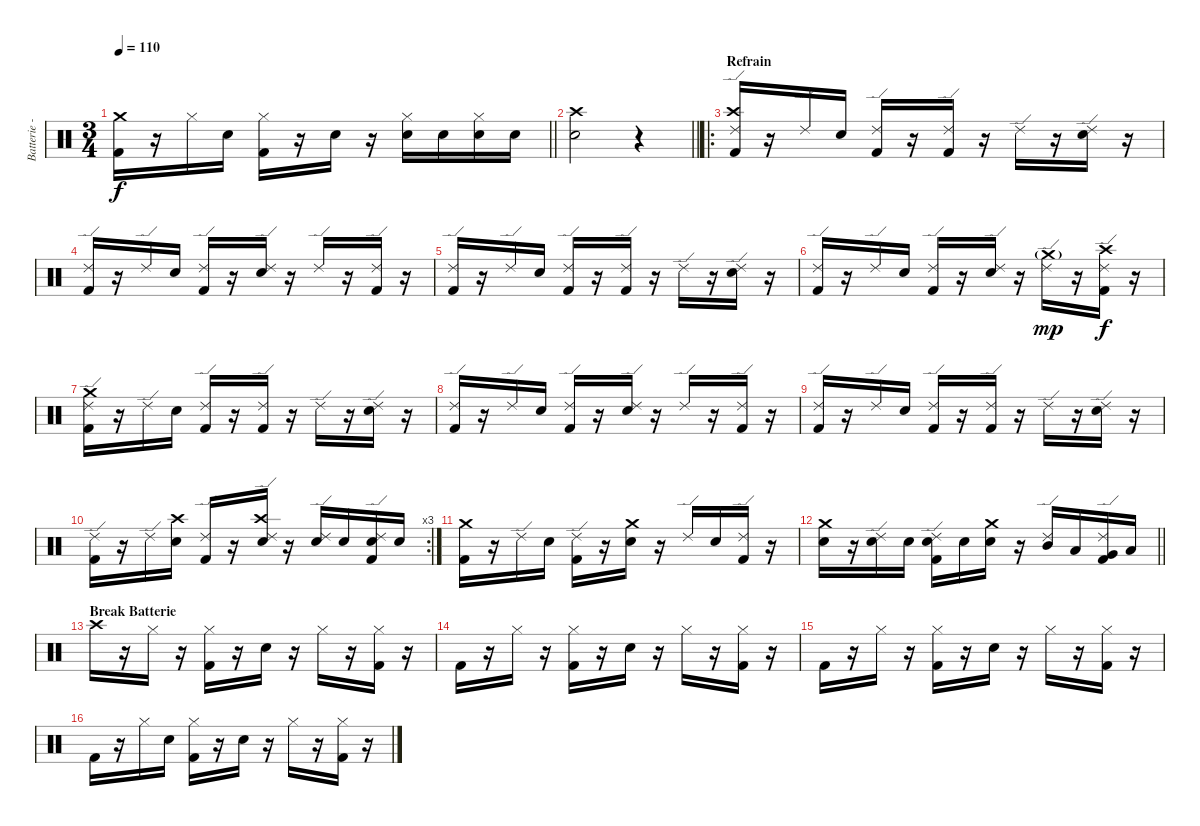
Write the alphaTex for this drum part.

\track ("Batterie - Toshiya" "Batterie -") {instrument percussion}
\staff {score}
\articulation defaults
\ts (3 4)
\tempo 110
\clef neutral
\barLineRight lightlight
\ks c
("Crash medium (hit)" "Kick (hit) 2").16{dy f} r.16 "Hi-Hat (closed)".16 "Electric Snare (hit)".16 ("Hi-Hat (closed)" "Kick (hit) 2").16 r.16 "Electric Snare (hit)".16 r.16 ("Hi-Hat (closed)" "Electric Snare (hit)").16 "Electric Snare (hit)".16 ("Hi-Hat (closed)" "Electric Snare (hit)").16 "Electric Snare (hit)".16 |
\barLineRight lightlight
("Crash high (hit)" "Electric Snare (hit)").2 r.4 |
\ro
\section ("" "Refrain")
("Ride (edge) 2" "Crash high (hit)" "Kick (hit) 2").16 r.16 "Ride (edge) 2".16 "Electric Snare (hit)".16 ("Ride (edge) 2" "Kick (hit) 2").16 r.16 ("Ride (edge) 2" "Kick (hit) 2").16 r.16 "Ride (edge) 2".16 r.16 ("Ride (edge) 2" "Electric Snare (hit)").16 r.16 |
("Ride (edge) 2" "Kick (hit) 2").16 r.16 "Ride (edge) 2".16 "Electric Snare (hit)".16 ("Ride (edge) 2" "Kick (hit) 2").16 r.16 ("Ride (edge) 2" "Electric Snare (hit)").16 r.16 "Ride (edge) 2".16 r.16 ("Ride (edge) 2" "Kick (hit) 2").16 r.16 |
("Ride (edge) 2" "Kick (hit) 2").16 r.16 "Ride (edge) 2".16 "Electric Snare (hit)".16 ("Ride (edge) 2" "Kick (hit) 2").16 r.16 ("Ride (edge) 2" "Kick (hit) 2").16 r.16 "Ride (edge) 2".16 r.16 ("Ride (edge) 2" "Electric Snare (hit)").16 r.16 |
("Ride (edge) 2" "Kick (hit) 2").16 r.16 "Ride (edge) 2".16 "Electric Snare (hit)".16 ("Ride (edge) 2" "Kick (hit) 2").16 r.16 ("Ride (edge) 2" "Electric Snare (hit)").16 r.16 ("Ride (edge) 2" "Crash medium (hit)"{g}).16{dy mp} r.16 ("Ride (edge) 2" "Crash high (hit)" "Kick (hit) 2").16{dy f} r.16 |
("Ride (edge) 2" "Crash medium (hit)" "Kick (hit) 2").16 r.16 "Ride (edge) 2".16 "Electric Snare (hit)".16 ("Ride (edge) 2" "Kick (hit) 2").16 r.16 ("Ride (edge) 2" "Kick (hit) 2").16 r.16 "Ride (edge) 2".16 r.16 ("Ride (edge) 2" "Electric Snare (hit)").16 r.16 |
("Ride (edge) 2" "Kick (hit) 2").16 r.16 "Ride (edge) 2".16 "Electric Snare (hit)".16 ("Ride (edge) 2" "Kick (hit) 2").16 r.16 ("Ride (edge) 2" "Electric Snare (hit)").16 r.16 "Ride (edge) 2".16 r.16 ("Ride (edge) 2" "Kick (hit) 2").16 r.16 |
("Ride (edge) 2" "Kick (hit) 2").16 r.16 "Ride (edge) 2".16 "Electric Snare (hit)".16 ("Ride (edge) 2" "Kick (hit) 2").16 r.16 ("Ride (edge) 2" "Kick (hit) 2").16 r.16 "Ride (edge) 2".16 r.16 ("Ride (edge) 2" "Electric Snare (hit)").16 r.16 |
\rc 3
("Ride (edge) 2" "Kick (hit) 2").16 r.16 "Ride (edge) 2".16 ("Crash high (hit)" "Electric Snare (hit)").16 ("Ride (edge) 2" "Kick (hit) 2").16 r.16 ("Ride (edge) 2" "Crash high (hit)" "Electric Snare (hit)").16 r.16 ("Ride (edge) 2" "Electric Snare (hit)").16 "Electric Snare (hit)".16 ("Ride (edge) 2" "Electric Snare (hit)" "Kick (hit) 2").16 "Electric Snare (hit)".16 |
("Crash medium (hit)" "Kick (hit) 2").16 r.16 "Ride (edge) 2".16 "Electric Snare (hit)".16 ("Ride (edge) 2" "Kick (hit) 2").16 r.16 ("Crash medium (hit)" "Electric Snare (hit)").16 r.16 "Ride (edge) 2".16 "Electric Snare (hit)".16 ("Ride (edge) 2" "Kick (hit) 2").16 r.16 |
\barLineRight lightlight
("Crash medium (hit)" "Electric Snare (hit)").16 r.16 ("Ride (edge) 2" "Electric Snare (hit)").16 "Electric Snare (hit)".16 ("Ride (edge) 2" "Electric Snare (hit)" "Kick (hit) 2").16 "Electric Snare (hit)".16 ("Crash medium (hit)" "Electric Snare (hit)").16 r.16 ("Ride (edge) 2" "Mid Tom (hit)").16 "Low Tom (hit)".16 ("Ride (edge) 2" "Very Low Tom (hit)" "Kick (hit) 2").16 "Low Floor Tom (hit)".16 |
\section ("" "Break Batterie")
"Crash high (hit)".16 r.16 "Hi-Hat (closed)".16 r.16 ("Hi-Hat (closed)" "Kick (hit) 2").16 r.16 "Electric Snare (hit)".16 r.16 "Hi-Hat (closed)".16 r.16 ("Hi-Hat (closed)" "Kick (hit) 2").16 r.16 |
"Kick (hit) 2".16 r.16 "Hi-Hat (closed)".16 r.16 ("Hi-Hat (closed)" "Kick (hit) 2").16 r.16 "Electric Snare (hit)".16 r.16 "Hi-Hat (closed)".16 r.16 ("Hi-Hat (closed)" "Kick (hit) 2").16 r.16 |
"Kick (hit) 2".16 r.16 "Hi-Hat (closed)".16 r.16 ("Hi-Hat (closed)" "Kick (hit) 2").16 r.16 "Electric Snare (hit)".16 r.16 "Hi-Hat (closed)".16 r.16 ("Hi-Hat (closed)" "Kick (hit) 2").16 r.16 |
"Kick (hit) 2".16 r.16 "Hi-Hat (closed)".16 "Electric Snare (hit)".16 ("Hi-Hat (closed)" "Kick (hit) 2").16 r.16 "Electric Snare (hit)".16 r.16 "Hi-Hat (closed)".16 r.16 ("Hi-Hat (closed)" "Kick (hit) 2").16 r.16
